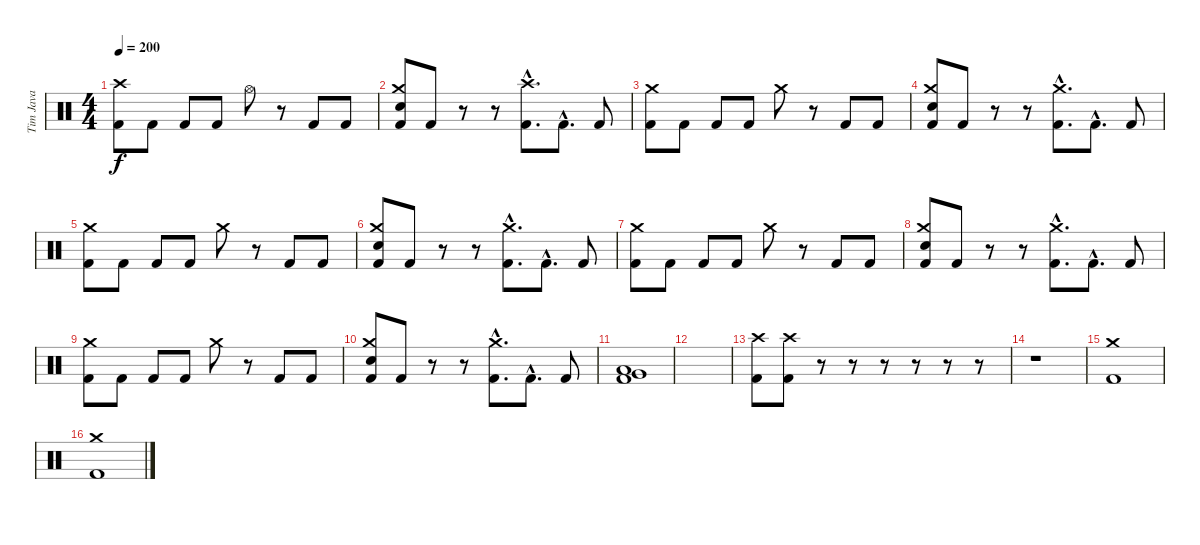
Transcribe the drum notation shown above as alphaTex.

\track ("Tim Java" "Tim Java") {instrument percussion}
\staff {score}
\articulation defaults
\ts (4 4)
\tempo 200
\clef neutral
\ks c
("Crash high (hit)" "Kick (hit) 2").8{dy f} "Kick (hit) 2".8 "Kick (hit) 2".8 "Kick (hit) 2".8 "Hi-Hat (open)".8 r.8 "Kick (hit) 2".8 "Kick (hit) 2".8 |
("Crash medium (hit)" "Electric Snare (hit)" "Kick (hit) 2").8 "Kick (hit) 2".8 r.8 r.8 ("Crash high (hit)"{hac} "Kick (hit) 2"{hac}).8{d} "Kick (hit) 2"{hac}.8{d} "Kick (hit) 2".8 |
("Crash medium (hit)" "Kick (hit) 2").8 "Kick (hit) 2".8 "Kick (hit) 2".8 "Kick (hit) 2".8 "Crash medium (hit)".8 r.8 "Kick (hit) 2".8 "Kick (hit) 2".8 |
("Crash medium (hit)" "Electric Snare (hit)" "Kick (hit) 2").8 "Kick (hit) 2".8 r.8 r.8 ("Crash medium (hit)"{hac} "Kick (hit) 2"{hac}).8{d} "Kick (hit) 2"{hac}.8{d} "Kick (hit) 2".8 |
("Crash medium (hit)" "Kick (hit) 2").8 "Kick (hit) 2".8 "Kick (hit) 2".8 "Kick (hit) 2".8 "Crash medium (hit)".8 r.8 "Kick (hit) 2".8 "Kick (hit) 2".8 |
("Crash medium (hit)" "Electric Snare (hit)" "Kick (hit) 2").8 "Kick (hit) 2".8 r.8 r.8 ("Crash medium (hit)"{hac} "Kick (hit) 2"{hac}).8{d} "Kick (hit) 2"{hac}.8{d} "Kick (hit) 2".8 |
("Crash medium (hit)" "Kick (hit) 2").8 "Kick (hit) 2".8 "Kick (hit) 2".8 "Kick (hit) 2".8 "Crash medium (hit)".8 r.8 "Kick (hit) 2".8 "Kick (hit) 2".8 |
("Crash medium (hit)" "Electric Snare (hit)" "Kick (hit) 2").8 "Kick (hit) 2".8 r.8 r.8 ("Crash medium (hit)"{hac} "Kick (hit) 2"{hac}).8{d} "Kick (hit) 2"{hac}.8{d} "Kick (hit) 2".8 |
("Crash medium (hit)" "Kick (hit) 2").8 "Kick (hit) 2".8 "Kick (hit) 2".8 "Kick (hit) 2".8 "Crash medium (hit)".8 r.8 "Kick (hit) 2".8 "Kick (hit) 2".8 |
("Crash medium (hit)" "Electric Snare (hit)" "Kick (hit) 2").8 "Kick (hit) 2".8 r.8 r.8 ("Crash medium (hit)"{hac} "Kick (hit) 2"{hac}).8{d} "Kick (hit) 2"{hac}.8{d} "Kick (hit) 2".8 |
("Very Low Tom (hit)" "Low Floor Tom (hit)" "Kick (hit) 2").1 |
|
("Crash high (hit)" "Kick (hit) 2").8 ("Crash high (hit)" "Kick (hit) 2").8 r.8 r.8 r.8 r.8 r.8 r.8 |
r.1 |
("Crash medium (hit)" "Kick (hit) 2").1 |
("Crash medium (hit)" "Kick (hit) 2").1
